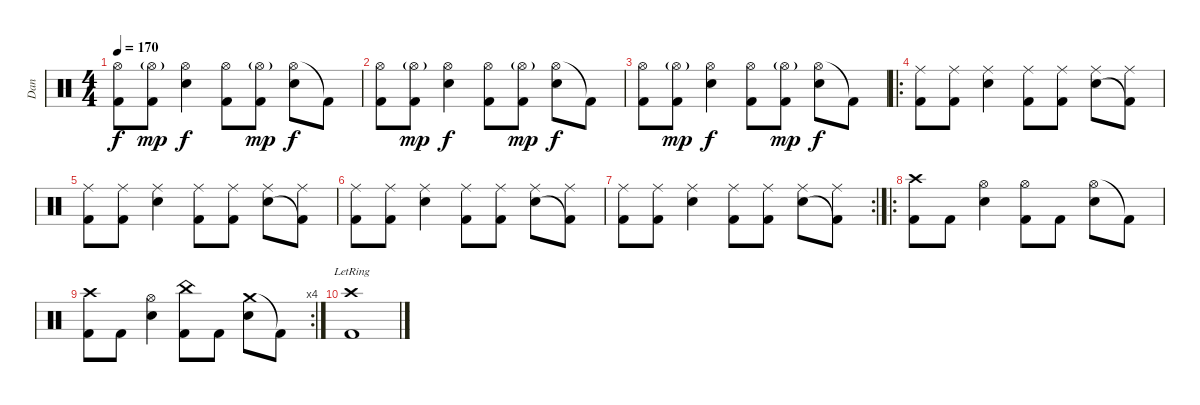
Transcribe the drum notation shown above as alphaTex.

\track ("Dan" "Dan") {instrument percussion}
\staff {score}
\articulation defaults
\ts (4 4)
\tempo 170
\clef neutral
\ks c
("Hi-Hat (open)" "Kick (hit) 2").8{dy f} ("Hi-Hat (open)"{g} "Kick (hit) 2").8{dy mp} ("Hi-Hat (open)" "Snare (hit) 2").4{dy f} ("Hi-Hat (open)" "Kick (hit) 2").8 ("Hi-Hat (open)"{g} "Kick (hit) 2").8{dy mp} ("Hi-Hat (open)" "Snare (hit) 2").8{dy f} "Kick (hit) 2"{t}.8 |
("Hi-Hat (open)" "Kick (hit) 2").8 ("Hi-Hat (open)"{g} "Kick (hit) 2").8{dy mp} ("Hi-Hat (open)" "Snare (hit) 2").4{dy f} ("Hi-Hat (open)" "Kick (hit) 2").8 ("Hi-Hat (open)"{g} "Kick (hit) 2").8{dy mp} ("Hi-Hat (open)" "Snare (hit) 2").8{dy f} "Kick (hit) 2"{t}.8 |
("Hi-Hat (open)" "Kick (hit) 2").8 ("Hi-Hat (open)"{g} "Kick (hit) 2").8{dy mp} ("Hi-Hat (open)" "Snare (hit) 2").4{dy f} ("Hi-Hat (open)" "Kick (hit) 2").8 ("Hi-Hat (open)"{g} "Kick (hit) 2").8{dy mp} ("Hi-Hat (open)" "Snare (hit) 2").8{dy f} "Kick (hit) 2"{t}.8 |
\ro
("Ride (middle)" "Kick (hit) 2").8 ("Ride (middle)" "Kick (hit) 2").8 ("Ride (middle)" "Snare (hit) 2").4 ("Ride (middle)" "Kick (hit) 2").8 ("Ride (middle)" "Kick (hit) 2").8 ("Ride (middle)" "Snare (hit) 2").8 ("Ride (middle)" "Kick (hit) 2"{t}).8 |
("Ride (middle)" "Kick (hit) 2").8 ("Ride (middle)" "Kick (hit) 2").8 ("Ride (middle)" "Snare (hit) 2").4 ("Ride (middle)" "Kick (hit) 2").8 ("Ride (middle)" "Kick (hit) 2").8 ("Ride (middle)" "Snare (hit) 2").8 ("Ride (middle)" "Kick (hit) 2"{t}).8 |
("Ride (middle)" "Kick (hit) 2").8 ("Ride (middle)" "Kick (hit) 2").8 ("Ride (middle)" "Snare (hit) 2").4 ("Ride (middle)" "Kick (hit) 2").8 ("Ride (middle)" "Kick (hit) 2").8 ("Ride (middle)" "Snare (hit) 2").8 ("Ride (middle)" "Kick (hit) 2"{t}).8 |
\rc 2
("Ride (middle)" "Kick (hit) 2").8 ("Ride (middle)" "Kick (hit) 2").8 ("Ride (middle)" "Snare (hit) 2").4 ("Ride (middle)" "Kick (hit) 2").8 ("Ride (middle)" "Kick (hit) 2").8 ("Ride (middle)" "Snare (hit) 2").8 ("Ride (middle)" "Kick (hit) 2"{t}).8 |
\ro
("Crash high (hit)" "Kick (hit) 2").8 "Kick (hit) 2".8 ("Hi-Hat (open)" "Snare (hit) 2").4 ("Hi-Hat (open)" "Kick (hit) 2").8 "Kick (hit) 2".8 ("Hi-Hat (open)" "Snare (hit) 2").8 "Kick (hit) 2"{t}.8 |
\rc 4
("Crash high (hit)" "Kick (hit) 2").8 "Kick (hit) 2".8 ("Hi-Hat (open)" "Snare (hit) 2").4 ("China (hit)" "Kick (hit) 2").8 "Kick (hit) 2".8 ("Crash medium (hit)" "Snare (hit) 2").8 "Kick (hit) 2"{t}.8 |
("Crash high (hit)"{lr} "Kick (hit) 2").1
